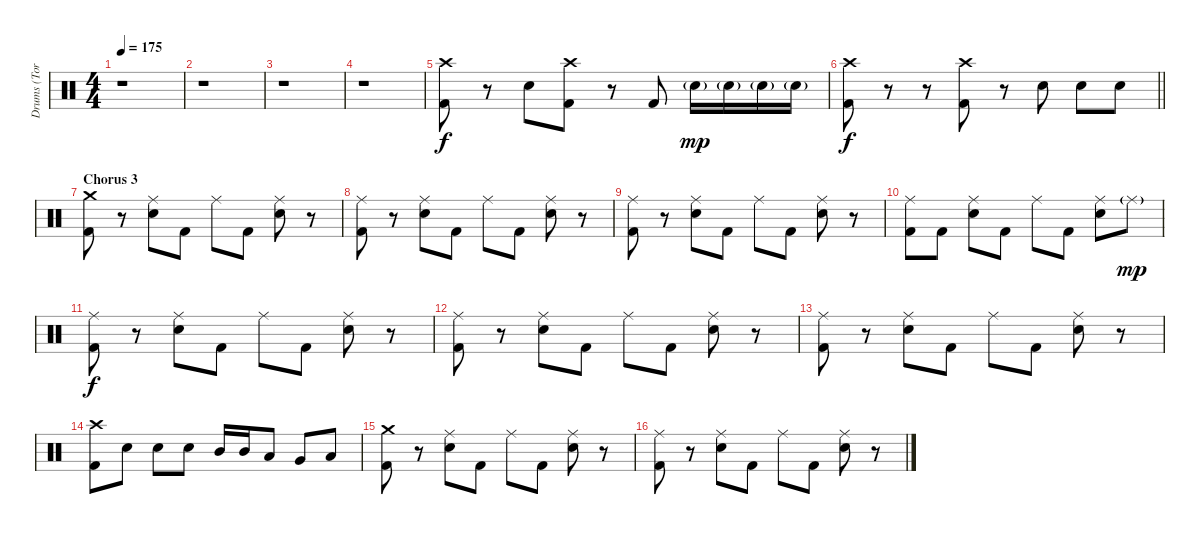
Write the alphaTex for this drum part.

\track ("Drums (Tora)" "Drums (Tor") {instrument percussion}
\staff {score}
\articulation defaults
\ts (4 4)
\tempo 175
\clef neutral
\ks c
r.1{dy f} |
r.1 |
r.1 |
r.1 |
("Crash high (hit)" "Kick (hit) 2").8 r.8 "Electric Snare (hit)".8 ("Crash high (hit)" "Kick (hit) 2").8 r.8 "Kick (hit) 2".8 "Electric Snare (hit)"{g}.16{dy mp} "Electric Snare (hit)"{g}.16 "Electric Snare (hit)"{g}.16 "Electric Snare (hit)"{g}.16 |
\barLineRight lightlight
("Crash high (hit)" "Kick (hit) 2").8{dy f} r.8 r.8 ("Crash high (hit)" "Kick (hit) 2").8 r.8 "Electric Snare (hit)".8 "Electric Snare (hit)".8 "Electric Snare (hit)".8 |
\section ("" "Chorus 3")
("Crash medium (hit)" "Kick (hit) 2").8 r.8 ("Ride (middle)" "Electric Snare (hit)").8 "Kick (hit) 2".8 "Ride (middle)".8 "Kick (hit) 2".8 ("Ride (middle)" "Electric Snare (hit)").8 r.8 |
("Ride (middle)" "Kick (hit) 2").8 r.8 ("Ride (middle)" "Electric Snare (hit)").8 "Kick (hit) 2".8 "Ride (middle)".8 "Kick (hit) 2".8 ("Ride (middle)" "Electric Snare (hit)").8 r.8 |
("Ride (middle)" "Kick (hit) 2").8 r.8 ("Ride (middle)" "Electric Snare (hit)").8 "Kick (hit) 2".8 "Ride (middle)".8 "Kick (hit) 2".8 ("Ride (middle)" "Electric Snare (hit)").8 r.8 |
("Ride (middle)" "Kick (hit) 2").8 "Kick (hit) 2".8 ("Ride (middle)" "Electric Snare (hit)").8 "Kick (hit) 2".8 "Ride (middle)".8 "Kick (hit) 2".8 ("Ride (middle)" "Electric Snare (hit)").8 "Ride (middle)"{g}.8{dy mp} |
("Ride (middle)" "Kick (hit) 2").8{dy f} r.8 ("Ride (middle)" "Electric Snare (hit)").8 "Kick (hit) 2".8 "Ride (middle)".8 "Kick (hit) 2".8 ("Ride (middle)" "Electric Snare (hit)").8 r.8 |
("Ride (middle)" "Kick (hit) 2").8 r.8 ("Ride (middle)" "Electric Snare (hit)").8 "Kick (hit) 2".8 "Ride (middle)".8 "Kick (hit) 2".8 ("Ride (middle)" "Electric Snare (hit)").8 r.8 |
("Ride (middle)" "Kick (hit) 2").8 r.8 ("Ride (middle)" "Electric Snare (hit)").8 "Kick (hit) 2".8 "Ride (middle)".8 "Kick (hit) 2".8 ("Ride (middle)" "Electric Snare (hit)").8 r.8 |
("Crash high (hit)" "Kick (hit) 2").8 "Electric Snare (hit)".8 "Electric Snare (hit)".8 "Electric Snare (hit)".8 "Mid Tom (hit)".16 "Mid Tom (hit)".16 "Low Tom (hit)".8 "Very Low Tom (hit)".8 "Low Floor Tom (hit)".8 |
("Crash medium (hit)" "Kick (hit) 2").8 r.8 ("Ride (middle)" "Electric Snare (hit)").8 "Kick (hit) 2".8 "Ride (middle)".8 "Kick (hit) 2".8 ("Ride (middle)" "Electric Snare (hit)").8 r.8 |
("Ride (middle)" "Kick (hit) 2").8 r.8 ("Ride (middle)" "Electric Snare (hit)").8 "Kick (hit) 2".8 "Ride (middle)".8 "Kick (hit) 2".8 ("Ride (middle)" "Electric Snare (hit)").8 r.8
